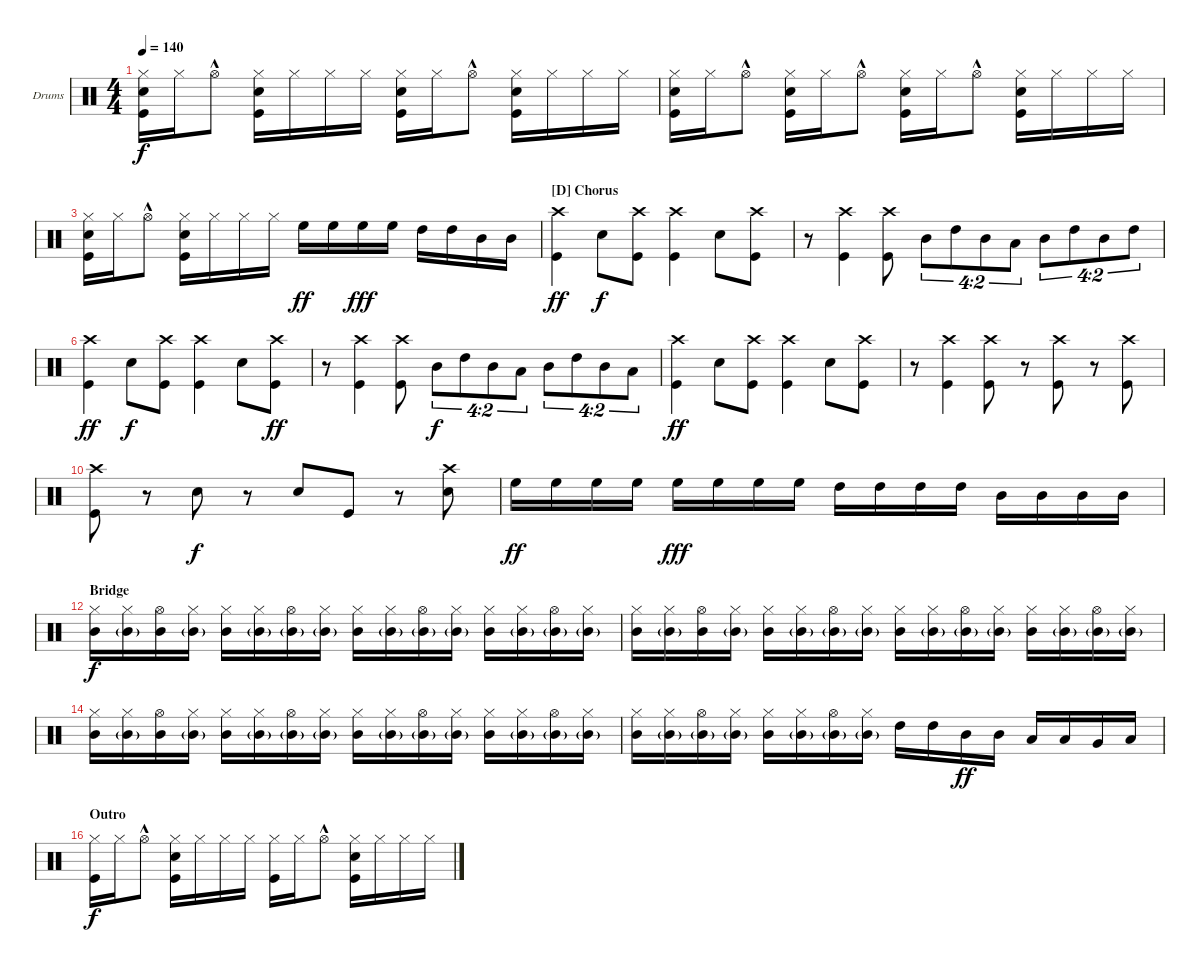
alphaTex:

\bracketExtendMode nobrackets
\firstSystemTrackNameOrientation horizontal
\otherSystemsTrackNameOrientation horizontal
\defaultBarNumberDisplay FirstOfSystem
\track ("Drumkit" "Drums") {instrument percussion}
\staff {score}
\articulation defaults
\ts (4 4)
\tempo 140
\clef neutral
\ks c
("Hi-Hat (closed)" "Kick (hit)" "Snare (hit) 2").16{dy f} "Hi-Hat (closed)".16 "Hi-Hat (open)"{hac}.8 ("Hi-Hat (closed)" "Kick (hit)" "Snare (hit) 2").16 "Hi-Hat (closed)".16 "Hi-Hat (closed)".16 "Hi-Hat (closed)".16 ("Hi-Hat (closed)" "Kick (hit)" "Snare (hit) 2").16 "Hi-Hat (closed)".16 "Hi-Hat (open)"{hac}.8 ("Hi-Hat (closed)" "Kick (hit)" "Snare (hit) 2").16 "Hi-Hat (closed)".16 "Hi-Hat (closed)".16 "Hi-Hat (closed)".16 |
("Hi-Hat (closed)" "Kick (hit)" "Snare (hit) 2").16 "Hi-Hat (closed)".16 "Hi-Hat (open)"{hac}.8 ("Hi-Hat (closed)" "Kick (hit)" "Snare (hit) 2").16 "Hi-Hat (closed)".16 "Hi-Hat (open)"{hac}.8 ("Hi-Hat (closed)" "Kick (hit)" "Snare (hit) 2").16 "Hi-Hat (closed)".16 "Hi-Hat (open)"{hac}.8 ("Hi-Hat (closed)" "Kick (hit)" "Snare (hit) 2").16 "Hi-Hat (closed)".16 "Hi-Hat (closed)".16 "Hi-Hat (closed)".16 |
("Hi-Hat (closed)" "Kick (hit)" "Snare (hit) 2").16 "Hi-Hat (closed)".16 "Hi-Hat (open)"{hac}.8 ("Hi-Hat (closed)" "Kick (hit)" "Snare (hit) 2").16 "Hi-Hat (closed)".16 "Hi-Hat (closed)".16 "Hi-Hat (closed)".16 "High Floor Tom (hit)".16{dy ff} "High Floor Tom (hit)".16 "High Floor Tom (hit)".16{dy fff} "High Floor Tom (hit)".16 "High Tom (hit)".16 "High Tom (hit)".16 "Mid Tom (hit)".16 "Mid Tom (hit)".16 |
\section ("D" "Chorus")
("Kick (hit)" "Crash high (hit)").4{dy ff} "Snare (hit) 2".8{dy f} ("Crash high (hit)" "Kick (hit)").8 ("Crash high (hit)" "Kick (hit)").4 "Snare (hit) 2".8 ("Crash high (hit)" "Kick (hit)").8 |
r.8 ("Crash high (hit)" "Kick (hit)").4 ("Crash high (hit)" "Kick (hit)").8 "Mid Tom (hit)".8{tu (4 2)} "High Tom (hit)".8{tu (4 2)} "Mid Tom (hit)".8{tu (4 2)} "Low Tom (hit)".8{tu (4 2)} "Mid Tom (hit)".8{tu (4 2)} "High Tom (hit)".8{tu (4 2)} "Mid Tom (hit)".8{tu (4 2)} "High Tom (hit)".8{tu (4 2)} |
("Kick (hit)" "Crash high (hit)").4{dy ff} "Snare (hit) 2".8{dy f} ("Crash high (hit)" "Kick (hit)").8 ("Crash high (hit)" "Kick (hit)").4 "Snare (hit) 2".8 ("Crash high (hit)" "Kick (hit)").8{dy ff} |
r.8 ("Crash high (hit)" "Kick (hit)").4 ("Crash high (hit)" "Kick (hit)").8 "Mid Tom (hit)".8{tu (4 2) dy f} "High Tom (hit)".8{tu (4 2)} "Mid Tom (hit)".8{tu (4 2)} "Low Tom (hit)".8{tu (4 2)} "Mid Tom (hit)".8{tu (4 2)} "High Tom (hit)".8{tu (4 2)} "Mid Tom (hit)".8{tu (4 2)} "Low Tom (hit)".8{tu (4 2)} |
("Kick (hit)" "Crash high (hit)").4{dy ff} "Snare (hit) 2".8 ("Crash high (hit)" "Kick (hit)").8 ("Crash high (hit)" "Kick (hit)").4 "Snare (hit) 2".8 ("Crash high (hit)" "Kick (hit)").8 |
r.8 ("Crash high (hit)" "Kick (hit)").4 ("Crash high (hit)" "Kick (hit)").8 r.8 ("Kick (hit)" "Crash high (hit)").8 r.8 ("Kick (hit)" "Crash high (hit)").8 |
("Kick (hit)" "Crash high (hit)").8 r.8 "Snare (hit) 2".8{dy f} r.8 "Snare (hit) 2".8 "Kick (hit)".8 r.8 ("Crash high (hit)" "Snare (hit) 2").8 |
"High Floor Tom (hit)".16{dy ff} "High Floor Tom (hit)".16 "High Floor Tom (hit)".16 "High Floor Tom (hit)".16 "High Floor Tom (hit)".16{dy fff} "High Floor Tom (hit)".16 "High Floor Tom (hit)".16 "High Floor Tom (hit)".16 "High Tom (hit)".16 "High Tom (hit)".16 "High Tom (hit)".16 "High Tom (hit)".16 "Mid Tom (hit)".16 "Mid Tom (hit)".16 "Mid Tom (hit)".16 "Mid Tom (hit)".16 |
\section ("" "Bridge")
("Hi-Hat (closed)" "Mid Tom (hit)").16{dy f} ("Mid Tom (hit)"{g} "Hi-Hat (closed)").16 ("Mid Tom (hit)" "Hi-Hat (open)").16 ("Mid Tom (hit)"{g} "Hi-Hat (closed)").16 ("Hi-Hat (closed)" "Mid Tom (hit)").16 ("Mid Tom (hit)"{g} "Hi-Hat (closed)").16 ("Mid Tom (hit)"{g} "Hi-Hat (open)").16 ("Hi-Hat (closed)" "Mid Tom (hit)"{g}).16 ("Hi-Hat (closed)" "Mid Tom (hit)").16 ("Mid Tom (hit)"{g} "Hi-Hat (closed)").16 ("Mid Tom (hit)"{g} "Hi-Hat (open)").16 ("Mid Tom (hit)"{g} "Hi-Hat (closed)").16 ("Hi-Hat (closed)" "Mid Tom (hit)").16 ("Mid Tom (hit)"{g} "Hi-Hat (closed)").16 ("Mid Tom (hit)"{g} "Hi-Hat (open)").16 ("Mid Tom (hit)"{g} "Hi-Hat (closed)").16 |
("Hi-Hat (closed)" "Mid Tom (hit)").16 ("Mid Tom (hit)"{g} "Hi-Hat (closed)").16 ("Mid Tom (hit)" "Hi-Hat (open)").16 ("Mid Tom (hit)"{g} "Hi-Hat (closed)").16 ("Hi-Hat (closed)" "Mid Tom (hit)").16 ("Mid Tom (hit)"{g} "Hi-Hat (closed)").16 ("Mid Tom (hit)"{g} "Hi-Hat (open)").16 ("Hi-Hat (closed)" "Mid Tom (hit)"{g}).16 ("Hi-Hat (closed)" "Mid Tom (hit)").16 ("Mid Tom (hit)"{g} "Hi-Hat (closed)").16 ("Mid Tom (hit)"{g} "Hi-Hat (open)").16 ("Mid Tom (hit)"{g} "Hi-Hat (closed)").16 ("Hi-Hat (closed)" "Mid Tom (hit)").16 ("Mid Tom (hit)"{g} "Hi-Hat (closed)").16 ("Mid Tom (hit)"{g} "Hi-Hat (open)").16 ("Mid Tom (hit)"{g} "Hi-Hat (closed)").16 |
("Hi-Hat (closed)" "Mid Tom (hit)").16 ("Mid Tom (hit)"{g} "Hi-Hat (closed)").16 ("Mid Tom (hit)" "Hi-Hat (open)").16 ("Mid Tom (hit)"{g} "Hi-Hat (closed)").16 ("Hi-Hat (closed)" "Mid Tom (hit)").16 ("Mid Tom (hit)"{g} "Hi-Hat (closed)").16 ("Mid Tom (hit)"{g} "Hi-Hat (open)").16 ("Hi-Hat (closed)" "Mid Tom (hit)"{g}).16 ("Hi-Hat (closed)" "Mid Tom (hit)").16 ("Mid Tom (hit)"{g} "Hi-Hat (closed)").16 ("Mid Tom (hit)"{g} "Hi-Hat (open)").16 ("Mid Tom (hit)"{g} "Hi-Hat (closed)").16 ("Hi-Hat (closed)" "Mid Tom (hit)").16 ("Mid Tom (hit)"{g} "Hi-Hat (closed)").16 ("Mid Tom (hit)"{g} "Hi-Hat (open)").16 ("Mid Tom (hit)"{g} "Hi-Hat (closed)").16 |
("Hi-Hat (closed)" "Mid Tom (hit)").16 ("Mid Tom (hit)"{g} "Hi-Hat (closed)").16 ("Mid Tom (hit)"{g} "Hi-Hat (open)").16 ("Mid Tom (hit)"{g} "Hi-Hat (closed)").16 ("Hi-Hat (closed)" "Mid Tom (hit)").16 ("Mid Tom (hit)"{g} "Hi-Hat (closed)").16 ("Mid Tom (hit)"{g} "Hi-Hat (open)").16 ("Mid Tom (hit)"{g} "Hi-Hat (closed)").16 "High Tom (hit)".16 "High Tom (hit)".16 "Mid Tom (hit)".16{dy ff} "Mid Tom (hit)".16 "Low Tom (hit)".16 "Low Tom (hit)".16 "Very Low Tom (hit)".16 "Low Tom (hit)".16 |
\section ("" "Outro")
("Hi-Hat (closed)" "Kick (hit)").16{dy f} "Hi-Hat (closed)".16 "Hi-Hat (open)"{hac}.8 ("Hi-Hat (closed)" "Kick (hit)" "Snare (hit) 2").16 "Hi-Hat (closed)".16 "Hi-Hat (closed)".16 "Hi-Hat (closed)".16 ("Hi-Hat (closed)" "Kick (hit)").16 "Hi-Hat (closed)".16 "Hi-Hat (open)"{hac}.8 ("Hi-Hat (closed)" "Kick (hit)" "Snare (hit) 2").16 "Hi-Hat (closed)".16 "Hi-Hat (closed)".16 "Hi-Hat (closed)".16
